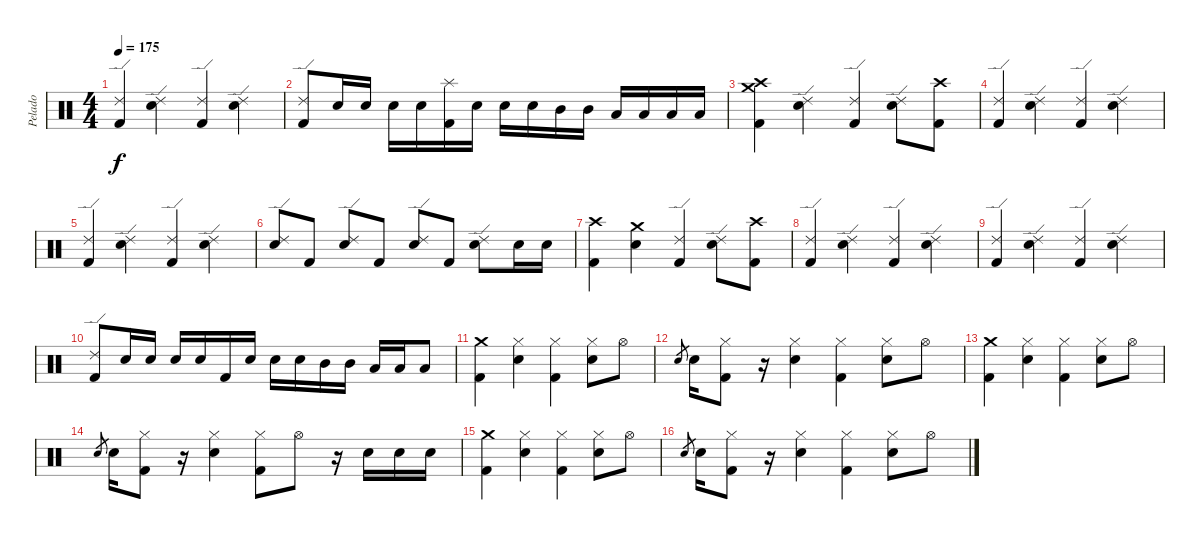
\track ("Pelado" "Pelado") {instrument percussion}
\staff {score}
\articulation defaults
\ts (4 4)
\tempo 175
\clef neutral
\ks c
("Ride (edge) 2" "Kick (hit) 2").4{dy f} ("Ride (edge) 2" "Electric Snare (hit)").4 ("Ride (edge) 2" "Kick (hit) 2").4 ("Ride (edge) 2" "Electric Snare (hit)").4 |
("Ride (edge) 2" "Kick (hit) 2").8 "Electric Snare (hit)".16 "Electric Snare (hit)".16 "Electric Snare (hit)".16 "Electric Snare (hit)".16 ("Splash (hit)" "Kick (hit) 2").16 "Electric Snare (hit)".16 "Electric Snare (hit)".16 "Electric Snare (hit)".16 "Mid Tom (hit)".16 "Mid Tom (hit)".16 "Low Tom (hit)".16 "Low Tom (hit)".16 "Low Tom (hit)".16 "Low Tom (hit)".16 |
("Crash medium (hit)" "Crash high (hit)" "Kick (hit) 2").4 ("Ride (edge) 2" "Electric Snare (hit)").4 ("Ride (edge) 2" "Kick (hit) 2").4 ("Ride (edge) 2" "Electric Snare (hit)").8 ("Crash high (hit)" "Kick (hit) 2").8 |
("Ride (edge) 2" "Kick (hit) 2").4 ("Ride (edge) 2" "Electric Snare (hit)").4 ("Ride (edge) 2" "Kick (hit) 2").4 ("Ride (edge) 2" "Electric Snare (hit)").4 |
("Ride (edge) 2" "Kick (hit) 2").4 ("Ride (edge) 2" "Electric Snare (hit)").4 ("Ride (edge) 2" "Kick (hit) 2").4 ("Ride (edge) 2" "Electric Snare (hit)").4 |
("Ride (edge) 2" "Electric Snare (hit)").8 "Kick (hit) 2".8 ("Ride (edge) 2" "Electric Snare (hit)").8 "Kick (hit) 2".8 ("Ride (edge) 2" "Electric Snare (hit)").8 "Kick (hit) 2".8 ("Ride (edge) 2" "Electric Snare (hit)").8 "Electric Snare (hit)".16 "Electric Snare (hit)".16 |
("Crash high (hit)" "Kick (hit) 2").4 ("Crash medium (hit)" "Electric Snare (hit)").4 ("Ride (edge) 2" "Kick (hit) 2").4 ("Ride (edge) 2" "Electric Snare (hit)").8 ("Crash high (hit)" "Kick (hit) 2").8 |
("Ride (edge) 2" "Kick (hit) 2").4 ("Ride (edge) 2" "Electric Snare (hit)").4 ("Ride (edge) 2" "Kick (hit) 2").4 ("Ride (edge) 2" "Electric Snare (hit)").4 |
("Ride (edge) 2" "Kick (hit) 2").4 ("Ride (edge) 2" "Electric Snare (hit)").4 ("Ride (edge) 2" "Kick (hit) 2").4 ("Ride (edge) 2" "Electric Snare (hit)").4 |
("Ride (edge) 2" "Kick (hit) 2").8 "Electric Snare (hit)".16 "Electric Snare (hit)".16 "Electric Snare (hit)".16 "Electric Snare (hit)".16 "Kick (hit) 2".16 "Electric Snare (hit)".16 "Electric Snare (hit)".16 "Electric Snare (hit)".16 "Mid Tom (hit)".16 "Mid Tom (hit)".16 "Low Tom (hit)".16 "Low Tom (hit)".16 "Low Tom (hit)".8 |
("Crash medium (hit)" "Kick (hit) 2").4 ("Hi-Hat (closed)" "Electric Snare (hit)").4 ("Hi-Hat (closed)" "Kick (hit) 2").4 ("Hi-Hat (closed)" "Electric Snare (hit)").8 "Hi-Hat (open)".8 |
"Electric Snare (hit)".8{gr} "Electric Snare (hit)".16 ("Hi-Hat (closed)" "Kick (hit) 2").8 r.16 ("Hi-Hat (closed)" "Electric Snare (hit)").4 ("Hi-Hat (closed)" "Kick (hit) 2").4 ("Hi-Hat (closed)" "Electric Snare (hit)").8 "Hi-Hat (open)".8 |
("Crash medium (hit)" "Kick (hit) 2").4 ("Hi-Hat (closed)" "Electric Snare (hit)").4 ("Hi-Hat (closed)" "Kick (hit) 2").4 ("Hi-Hat (closed)" "Electric Snare (hit)").8 "Hi-Hat (open)".8 |
"Electric Snare (hit)".8{gr} "Electric Snare (hit)".16 ("Hi-Hat (closed)" "Kick (hit) 2").8 r.16 ("Hi-Hat (closed)" "Electric Snare (hit)").4 ("Hi-Hat (closed)" "Kick (hit) 2").8 "Hi-Hat (open)".8 r.16 "Electric Snare (hit)".16 "Electric Snare (hit)".16 "Electric Snare (hit)".16 |
("Crash medium (hit)" "Kick (hit) 2").4 ("Hi-Hat (closed)" "Electric Snare (hit)").4 ("Hi-Hat (closed)" "Kick (hit) 2").4 ("Hi-Hat (closed)" "Electric Snare (hit)").8 "Hi-Hat (open)".8 |
"Electric Snare (hit)".8{gr} "Electric Snare (hit)".16 ("Hi-Hat (closed)" "Kick (hit) 2").8 r.16 ("Hi-Hat (closed)" "Electric Snare (hit)").4 ("Hi-Hat (closed)" "Kick (hit) 2").4 ("Hi-Hat (closed)" "Electric Snare (hit)").8 "Hi-Hat (open)".8
